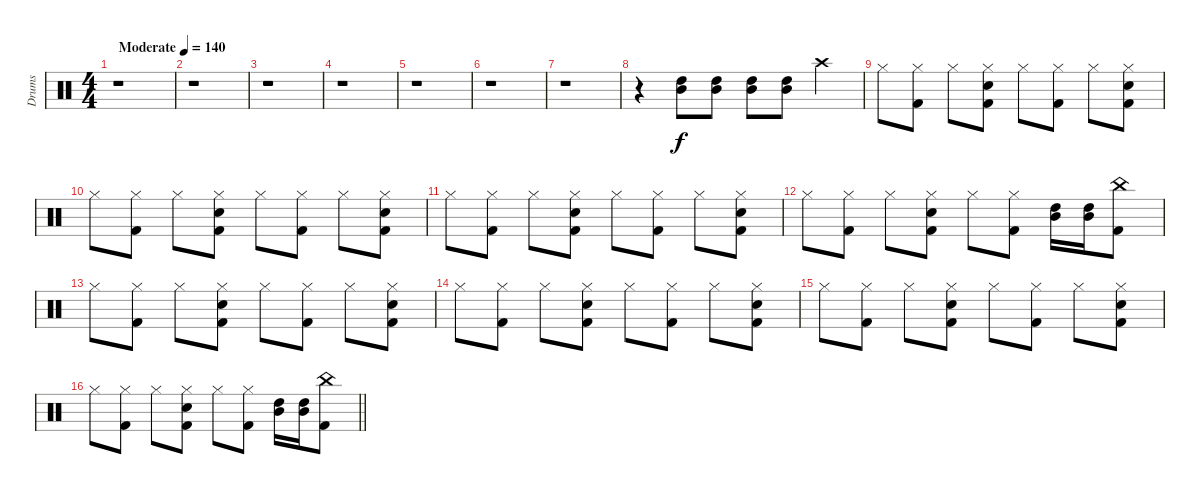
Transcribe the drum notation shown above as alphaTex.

\track ("Drums" "Drums") {instrument percussion}
\staff {score}
\articulation defaults
\ts (4 4)
\tempo (140 "Moderate")
\clef neutral
\ks c
r.1{dy f} |
r.1 |
r.1 |
r.1 |
r.1 |
r.1 |
r.1 |
r.4 ("Mid Tom (hit)" "High Tom (hit)").8 ("Mid Tom (hit)" "High Tom (hit)").8 ("Mid Tom (hit)" "High Tom (hit)").8 ("Mid Tom (hit)" "High Tom (hit)").8 "Crash high (hit)".4 |
"Hi-Hat (closed)".8 ("Hi-Hat (closed)" "Kick (hit) 2").8 "Hi-Hat (closed)".8 ("Hi-Hat (closed)" "Snare (hit) 2" "Kick (hit) 2").8 "Hi-Hat (closed)".8 ("Hi-Hat (closed)" "Kick (hit) 2").8 "Hi-Hat (closed)".8 ("Hi-Hat (closed)" "Snare (hit) 2" "Kick (hit) 2").8 |
"Hi-Hat (closed)".8 ("Hi-Hat (closed)" "Kick (hit) 2").8 "Hi-Hat (closed)".8 ("Hi-Hat (closed)" "Snare (hit) 2" "Kick (hit) 2").8 "Hi-Hat (closed)".8 ("Hi-Hat (closed)" "Kick (hit) 2").8 "Hi-Hat (closed)".8 ("Hi-Hat (closed)" "Snare (hit) 2" "Kick (hit) 2").8 |
"Hi-Hat (closed)".8 ("Hi-Hat (closed)" "Kick (hit) 2").8 "Hi-Hat (closed)".8 ("Hi-Hat (closed)" "Snare (hit) 2" "Kick (hit) 2").8 "Hi-Hat (closed)".8 ("Hi-Hat (closed)" "Kick (hit) 2").8 "Hi-Hat (closed)".8 ("Hi-Hat (closed)" "Snare (hit) 2" "Kick (hit) 2").8 |
"Hi-Hat (closed)".8 ("Hi-Hat (closed)" "Kick (hit) 2").8 "Hi-Hat (closed)".8 ("Hi-Hat (closed)" "Snare (hit) 2" "Kick (hit) 2").8 "Hi-Hat (closed)".8 ("Hi-Hat (closed)" "Kick (hit) 2").8 ("Mid Tom (hit)" "High Tom (hit)").16 ("Mid Tom (hit)" "High Tom (hit)").16 ("China (hit)" "Kick (hit) 2").8 |
"Hi-Hat (closed)".8 ("Hi-Hat (closed)" "Kick (hit) 2").8 "Hi-Hat (closed)".8 ("Hi-Hat (closed)" "Snare (hit) 2" "Kick (hit) 2").8 "Hi-Hat (closed)".8 ("Hi-Hat (closed)" "Kick (hit) 2").8 "Hi-Hat (closed)".8 ("Hi-Hat (closed)" "Snare (hit) 2" "Kick (hit) 2").8 |
"Hi-Hat (closed)".8 ("Hi-Hat (closed)" "Kick (hit) 2").8 "Hi-Hat (closed)".8 ("Hi-Hat (closed)" "Snare (hit) 2" "Kick (hit) 2").8 "Hi-Hat (closed)".8 ("Hi-Hat (closed)" "Kick (hit) 2").8 "Hi-Hat (closed)".8 ("Hi-Hat (closed)" "Snare (hit) 2" "Kick (hit) 2").8 |
"Hi-Hat (closed)".8 ("Hi-Hat (closed)" "Kick (hit) 2").8 "Hi-Hat (closed)".8 ("Hi-Hat (closed)" "Snare (hit) 2" "Kick (hit) 2").8 "Hi-Hat (closed)".8 ("Hi-Hat (closed)" "Kick (hit) 2").8 "Hi-Hat (closed)".8 ("Hi-Hat (closed)" "Snare (hit) 2" "Kick (hit) 2").8 |
\barLineRight lightlight "Hi-Hat (closed)".8
("Hi-Hat (closed)" "Kick (hit) 2").8 "Hi-Hat (closed)".8 ("Hi-Hat (closed)" "Snare (hit) 2" "Kick (hit) 2").8 "Hi-Hat (closed)".8 ("Hi-Hat (closed)" "Kick (hit) 2").8 ("Mid Tom (hit)" "High Tom (hit)").16 ("Mid Tom (hit)" "High Tom (hit)").16 ("China (hit)" "Kick (hit) 2").8
